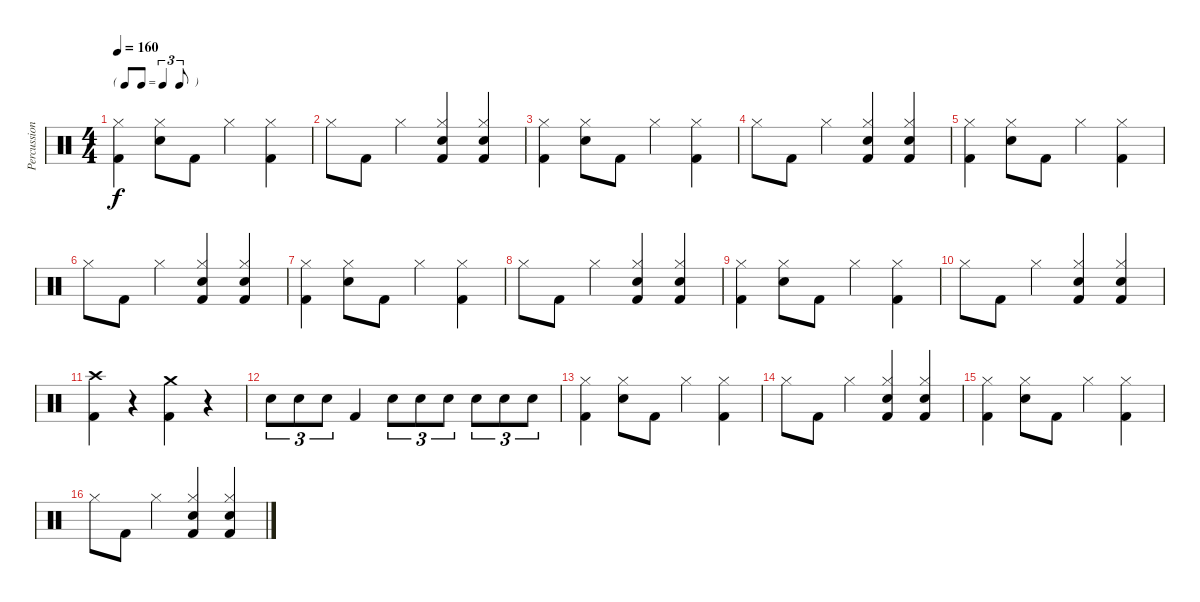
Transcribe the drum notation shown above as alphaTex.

\track ("Percussion" "Percussion") {instrument percussion}
\staff {score}
\articulation defaults
\ts (4 4)
\tf triplet8th
\tempo 160
\clef neutral
\ks c
("Kick (hit) 2" "Hi-Hat (closed)").4{dy f} ("Snare (hit) 2" "Hi-Hat (closed)").8 "Kick (hit) 2".8 "Hi-Hat (closed)".4 ("Kick (hit) 2" "Hi-Hat (closed)").4 |
"Hi-Hat (closed)".8 "Kick (hit) 2".8 "Hi-Hat (closed)".4 ("Kick (hit) 2" "Snare (hit) 2" "Hi-Hat (closed)").4 ("Kick (hit) 2" "Snare (hit) 2" "Hi-Hat (closed)").4 |
("Kick (hit) 2" "Hi-Hat (closed)").4 ("Snare (hit) 2" "Hi-Hat (closed)").8 "Kick (hit) 2".8 "Hi-Hat (closed)".4 ("Kick (hit) 2" "Hi-Hat (closed)").4 |
"Hi-Hat (closed)".8 "Kick (hit) 2".8 "Hi-Hat (closed)".4 ("Kick (hit) 2" "Snare (hit) 2" "Hi-Hat (closed)").4 ("Kick (hit) 2" "Snare (hit) 2" "Hi-Hat (closed)").4 |
("Kick (hit) 2" "Hi-Hat (closed)").4 ("Snare (hit) 2" "Hi-Hat (closed)").8 "Kick (hit) 2".8 "Hi-Hat (closed)".4 ("Kick (hit) 2" "Hi-Hat (closed)").4 |
"Hi-Hat (closed)".8 "Kick (hit) 2".8 "Hi-Hat (closed)".4 ("Kick (hit) 2" "Snare (hit) 2" "Hi-Hat (closed)").4 ("Kick (hit) 2" "Snare (hit) 2" "Hi-Hat (closed)").4 |
("Kick (hit) 2" "Hi-Hat (closed)").4 ("Snare (hit) 2" "Hi-Hat (closed)").8 "Kick (hit) 2".8 "Hi-Hat (closed)".4 ("Kick (hit) 2" "Hi-Hat (closed)").4 |
"Hi-Hat (closed)".8 "Kick (hit) 2".8 "Hi-Hat (closed)".4 ("Kick (hit) 2" "Snare (hit) 2" "Hi-Hat (closed)").4 ("Kick (hit) 2" "Snare (hit) 2" "Hi-Hat (closed)").4 |
("Kick (hit) 2" "Hi-Hat (closed)").4 ("Snare (hit) 2" "Hi-Hat (closed)").8 "Kick (hit) 2".8 "Hi-Hat (closed)".4 ("Kick (hit) 2" "Hi-Hat (closed)").4 |
"Hi-Hat (closed)".8 "Kick (hit) 2".8 "Hi-Hat (closed)".4 ("Kick (hit) 2" "Snare (hit) 2" "Hi-Hat (closed)").4 ("Kick (hit) 2" "Snare (hit) 2" "Hi-Hat (closed)").4 |
("Kick (hit) 2" "Crash high (hit)").4 r.4 ("Kick (hit) 2" "Crash medium (hit)").4 r.4 |
"Snare (hit) 2".8{tu (3 2)} "Snare (hit) 2".8{tu (3 2)} "Snare (hit) 2".8{tu (3 2)} "Kick (hit) 2".4 "Snare (hit) 2".8{tu (3 2)} "Snare (hit) 2".8{tu (3 2)} "Snare (hit) 2".8{tu (3 2)} "Snare (hit) 2".8{tu (3 2)} "Snare (hit) 2".8{tu (3 2)} "Snare (hit) 2".8{tu (3 2)} |
("Kick (hit) 2" "Hi-Hat (closed)").4 ("Snare (hit) 2" "Hi-Hat (closed)").8 "Kick (hit) 2".8 "Hi-Hat (closed)".4 ("Kick (hit) 2" "Hi-Hat (closed)").4 |
"Hi-Hat (closed)".8 "Kick (hit) 2".8 "Hi-Hat (closed)".4 ("Kick (hit) 2" "Snare (hit) 2" "Hi-Hat (closed)").4 ("Kick (hit) 2" "Snare (hit) 2" "Hi-Hat (closed)").4 |
("Kick (hit) 2" "Hi-Hat (closed)").4 ("Snare (hit) 2" "Hi-Hat (closed)").8 "Kick (hit) 2".8 "Hi-Hat (closed)".4 ("Kick (hit) 2" "Hi-Hat (closed)").4 |
"Hi-Hat (closed)".8 "Kick (hit) 2".8 "Hi-Hat (closed)".4 ("Kick (hit) 2" "Snare (hit) 2" "Hi-Hat (closed)").4 ("Kick (hit) 2" "Snare (hit) 2" "Hi-Hat (closed)").4
